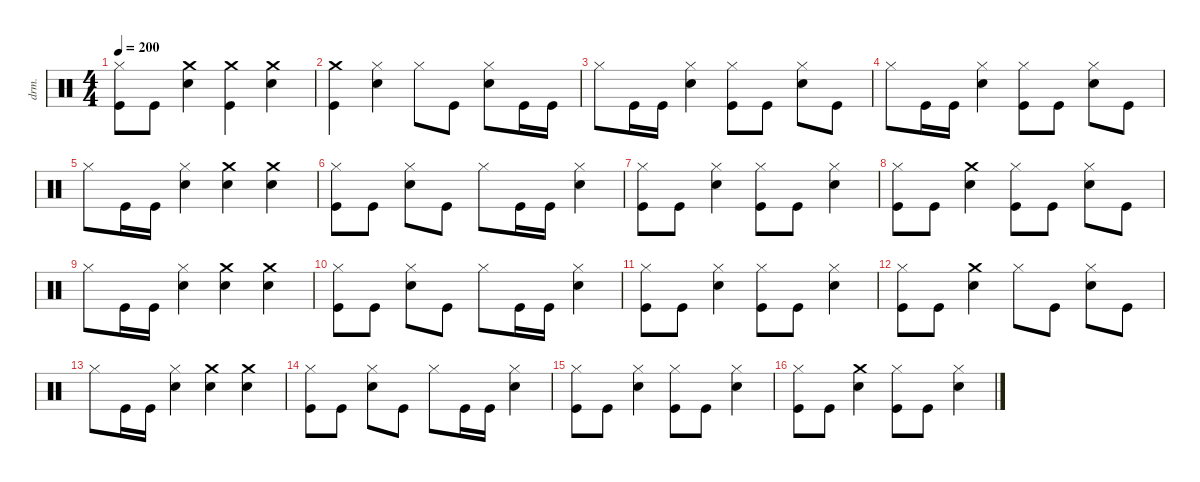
\defaultSystemsLayout 4
\hideDynamics
\bracketExtendMode nobrackets
\otherSystemsTrackNameOrientation horizontal
\track ("Lars Ulrich (Drums)" "drm.") {instrument percussion}
\staff {score}
\articulation defaults
\ts (4 4)
\tempo 200
\clef neutral
\ks c
("Kick (hit)" "Hi-Hat (closed)").8{dy f beam Down} "Kick (hit)".8{beam Down} ("Crash medium (hit)" "Snare (hit) 2").4{beam Down} ("Kick (hit)" "Crash medium (hit)").4{beam Down} ("Crash medium (hit)" "Snare (hit) 2").4{beam Down} |
("Kick (hit)" "Crash medium (hit)").4{beam Down} ("Hi-Hat (closed)" "Snare (hit) 2").4{beam Down} "Hi-Hat (closed)".8{beam Down} "Kick (hit)".8{beam Down} ("Snare (hit) 2" "Hi-Hat (closed)").8{beam Down} "Kick (hit)".16{beam Down} "Kick (hit)".16{beam Down} |
"Hi-Hat (closed)".8{beam Down} "Kick (hit)".16{beam Down} "Kick (hit)".16{beam Down} ("Snare (hit) 2" "Hi-Hat (closed)").4{beam Down} ("Hi-Hat (closed)" "Kick (hit)").8{beam Down} "Kick (hit)".8{beam Down} ("Snare (hit) 2" "Hi-Hat (closed)").8{beam Down} "Kick (hit)".8{beam Down} |
"Hi-Hat (closed)".8{beam Down} "Kick (hit)".16{beam Down} "Kick (hit)".16{beam Down} ("Snare (hit) 2" "Hi-Hat (closed)").4{beam Down} ("Hi-Hat (closed)" "Kick (hit)").8{beam Down} "Kick (hit)".8{beam Down} ("Snare (hit) 2" "Hi-Hat (closed)").8{beam Down} "Kick (hit)".8{beam Down} |
"Hi-Hat (closed)".8{beam Down} "Kick (hit)".16{beam Down} "Kick (hit)".16{beam Down} ("Snare (hit) 2" "Hi-Hat (closed)").4{beam Down} ("Crash medium (hit)" "Snare (hit) 2").4{beam Down} ("Crash medium (hit)" "Snare (hit) 2").4{beam Down} |
("Kick (hit)" "Hi-Hat (closed)").8{beam Down} "Kick (hit)".8{beam Down} ("Snare (hit) 2" "Hi-Hat (closed)").8{beam Down} "Kick (hit)".8{beam Down} "Hi-Hat (closed)".8{beam Down} "Kick (hit)".16{beam Down} "Kick (hit)".16{beam Down} ("Snare (hit) 2" "Hi-Hat (closed)").4{beam Down} |
("Kick (hit)" "Hi-Hat (closed)").8{beam Down} "Kick (hit)".8{beam Down} ("Snare (hit) 2" "Hi-Hat (closed)").4{beam Down} ("Kick (hit)" "Hi-Hat (closed)").8{beam Down} "Kick (hit)".8{beam Down} ("Snare (hit) 2" "Hi-Hat (closed)").4{beam Down} |
("Kick (hit)" "Hi-Hat (closed)").8{beam Down} "Kick (hit)".8{beam Down} ("Crash medium (hit)" "Snare (hit) 2").4{beam Down} ("Kick (hit)" "Hi-Hat (closed)").8{beam Down} "Kick (hit)".8{beam Down} ("Snare (hit) 2" "Hi-Hat (closed)").8{beam Down} "Kick (hit)".8{beam Down} |
"Hi-Hat (closed)".8{beam Down} "Kick (hit)".16{beam Down} "Kick (hit)".16{beam Down} ("Snare (hit) 2" "Hi-Hat (closed)").4{beam Down} ("Crash medium (hit)" "Snare (hit) 2").4{beam Down} ("Crash medium (hit)" "Snare (hit) 2").4{beam Down} |
("Kick (hit)" "Hi-Hat (closed)").8{beam Down} "Kick (hit)".8{beam Down} ("Snare (hit) 2" "Hi-Hat (closed)").8{beam Down} "Kick (hit)".8{beam Down} "Hi-Hat (closed)".8{beam Down} "Kick (hit)".16{beam Down} "Kick (hit)".16{beam Down} ("Snare (hit) 2" "Hi-Hat (closed)").4{beam Down} |
("Kick (hit)" "Hi-Hat (closed)").8{beam Down} "Kick (hit)".8{beam Down} ("Snare (hit) 2" "Hi-Hat (closed)").4{beam Down} ("Kick (hit)" "Hi-Hat (closed)").8{beam Down} "Kick (hit)".8{beam Down} ("Snare (hit) 2" "Hi-Hat (closed)").4{beam Down} |
("Kick (hit)" "Hi-Hat (closed)").8{beam Down} "Kick (hit)".8{beam Down} ("Crash medium (hit)" "Snare (hit) 2").4{beam Down} "Hi-Hat (closed)".8{beam Down} "Kick (hit)".8{beam Down} ("Snare (hit) 2" "Hi-Hat (closed)").8{beam Down} "Kick (hit)".8{beam Down} |
"Hi-Hat (closed)".8{beam Down} "Kick (hit)".16{beam Down} "Kick (hit)".16{beam Down} ("Snare (hit) 2" "Hi-Hat (closed)").4{beam Down} ("Crash medium (hit)" "Snare (hit) 2").4{beam Down} ("Crash medium (hit)" "Snare (hit) 2").4{beam Down} |
("Kick (hit)" "Hi-Hat (closed)").8{beam Down} "Kick (hit)".8{beam Down} ("Snare (hit) 2" "Hi-Hat (closed)").8{beam Down} "Kick (hit)".8{beam Down} "Hi-Hat (closed)".8{beam Down} "Kick (hit)".16{beam Down} "Kick (hit)".16{beam Down} ("Snare (hit) 2" "Hi-Hat (closed)").4{beam Down} |
("Kick (hit)" "Hi-Hat (closed)").8{beam Down} "Kick (hit)".8{beam Down} ("Snare (hit) 2" "Hi-Hat (closed)").4{beam Down} ("Kick (hit)" "Hi-Hat (closed)").8{beam Down} "Kick (hit)".8{beam Down} ("Snare (hit) 2" "Hi-Hat (closed)").4{beam Down} |
("Kick (hit)" "Hi-Hat (closed)").8{beam Down} "Kick (hit)".8{beam Down} ("Crash medium (hit)" "Snare (hit) 2").4{beam Down} ("Kick (hit)" "Hi-Hat (closed)").8{beam Down} "Kick (hit)".8{beam Down} ("Snare (hit) 2" "Hi-Hat (closed)").4{beam Down}
